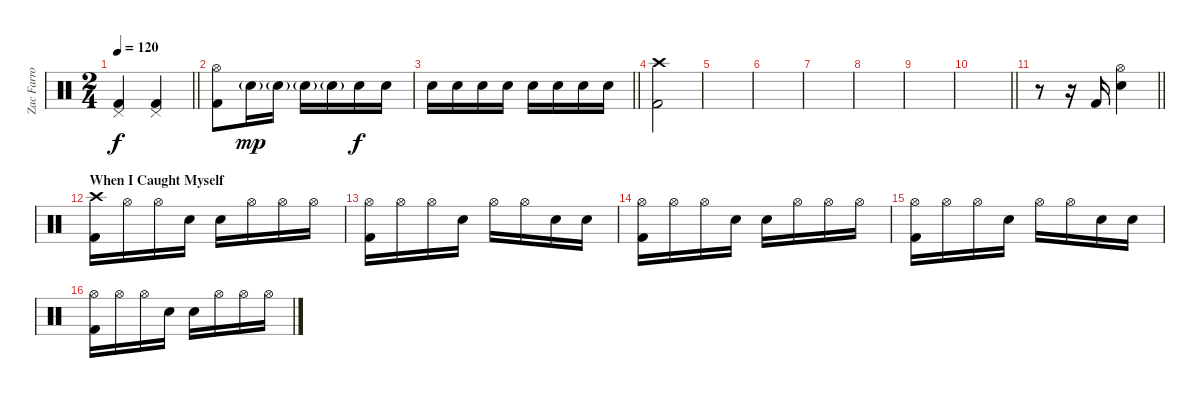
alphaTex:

\track ("Zac Farro" "Zac Farro") {instrument percussion}
\staff {score}
\articulation defaults
\ts (2 4)
\tempo 120
\clef neutral
\barLineRight lightlight
\ks c
("Kick (hit) 2" "Pedal Hi-Hat (hit)").4{dy f} ("Kick (hit) 2" "Pedal Hi-Hat (hit)").4 |
("Hi-Hat (open)" "Kick (hit) 2").8 "Electric Snare (hit)"{g}.16{dy mp} "Electric Snare (hit)"{g}.16 "Electric Snare (hit)"{g}.16 "Electric Snare (hit)"{g}.16 "Electric Snare (hit)".16{dy f} "Electric Snare (hit)".16 |
\barLineRight lightlight "Electric Snare (hit)".16 "Electric Snare (hit)".16 "Electric Snare (hit)".16 "Electric Snare (hit)".16 "Electric Snare (hit)".16 "Electric Snare (hit)".16 "Electric Snare (hit)".16 "Electric Snare (hit)".16
|
("Kick (hit) 2" "Crash high (hit)").2 |
|
|
|
|
|
\barLineRight lightlight
|
\barLineRight lightlight
r.8 r.16 "Kick (hit) 2".16 ("Hi-Hat (open)" "Electric Snare (hit)").4 |
\section ("" "When I Caught Myself")
("Kick (hit) 2" "Crash high (hit)").16 "Hi-Hat (open)".16 "Hi-Hat (open)".16 "Electric Snare (hit)".16 "Electric Snare (hit)".16 "Hi-Hat (open)".16 "Hi-Hat (open)".16 "Hi-Hat (open)".16 |
("Hi-Hat (open)" "Kick (hit) 2").16 "Hi-Hat (open)".16 "Hi-Hat (open)".16 "Electric Snare (hit)".16 "Hi-Hat (open)".16 "Hi-Hat (open)".16 "Electric Snare (hit)".16 "Electric Snare (hit)".16 |
("Hi-Hat (open)" "Kick (hit) 2").16 "Hi-Hat (open)".16 "Hi-Hat (open)".16 "Electric Snare (hit)".16 "Electric Snare (hit)".16 "Hi-Hat (open)".16 "Hi-Hat (open)".16 "Hi-Hat (open)".16 |
("Hi-Hat (open)" "Kick (hit) 2").16 "Hi-Hat (open)".16 "Hi-Hat (open)".16 "Electric Snare (hit)".16 "Hi-Hat (open)".16 "Hi-Hat (open)".16 "Electric Snare (hit)".16 "Electric Snare (hit)".16 |
("Hi-Hat (open)" "Kick (hit) 2").16 "Hi-Hat (open)".16 "Hi-Hat (open)".16 "Electric Snare (hit)".16 "Electric Snare (hit)".16 "Hi-Hat (open)".16 "Hi-Hat (open)".16 "Hi-Hat (open)".16
